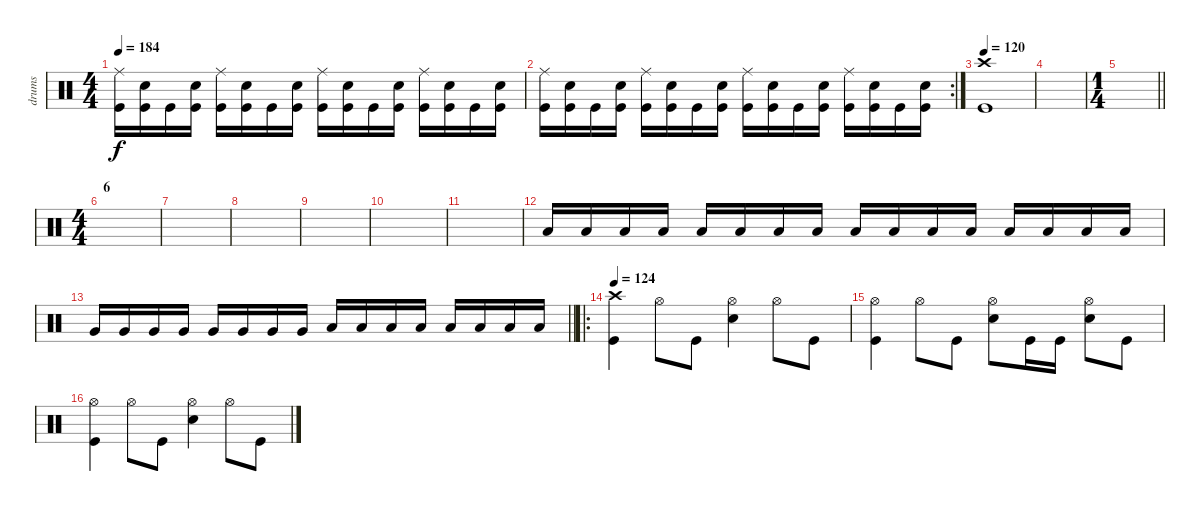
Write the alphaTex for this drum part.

\track ("drums" "drums") {instrument percussion}
\staff {score}
\articulation defaults
\ts (4 4)
\tempo 184
\clef neutral
\ks c
("Kick (hit)" "Ride (middle)").16{dy f} ("Kick (hit)" "Electric Snare (hit)").16 "Kick (hit)".16 ("Kick (hit)" "Electric Snare (hit)").16 ("Kick (hit)" "Ride (middle)").16 ("Kick (hit)" "Electric Snare (hit)").16 "Kick (hit)".16 ("Kick (hit)" "Electric Snare (hit)").16 ("Kick (hit)" "Ride (middle)").16 ("Kick (hit)" "Electric Snare (hit)").16 "Kick (hit)".16 ("Kick (hit)" "Electric Snare (hit)").16 ("Kick (hit)" "Ride (middle)").16 ("Kick (hit)" "Electric Snare (hit)").16 "Kick (hit)".16 ("Kick (hit)" "Electric Snare (hit)").16 |
\rc 2
("Kick (hit)" "Ride (middle)").16 ("Kick (hit)" "Electric Snare (hit)").16 "Kick (hit)".16 ("Kick (hit)" "Electric Snare (hit)").16 ("Kick (hit)" "Ride (middle)").16 ("Kick (hit)" "Electric Snare (hit)").16 "Kick (hit)".16 ("Kick (hit)" "Electric Snare (hit)").16 ("Kick (hit)" "Ride (middle)").16 ("Kick (hit)" "Electric Snare (hit)").16 "Kick (hit)".16 ("Kick (hit)" "Electric Snare (hit)").16 ("Kick (hit)" "Ride (middle)").16 ("Kick (hit)" "Electric Snare (hit)").16 "Kick (hit)".16 ("Kick (hit)" "Electric Snare (hit)").16 |
\tempo 120
("Kick (hit)" "Crash high (hit)").1 |
|
\ts (1 4)
\barLineRight lightlight
|
\ts (4 4)
\section ("" "6")
|
|
|
|
|
|
"Low Tom (hit)".16{volume 13} "Low Tom (hit)".16 "Low Tom (hit)".16 "Low Tom (hit)".16 "Low Tom (hit)".16 "Low Tom (hit)".16 "Low Tom (hit)".16 "Low Tom (hit)".16 "Low Tom (hit)".16 "Low Tom (hit)".16 "Low Tom (hit)".16 "Low Tom (hit)".16 "Low Tom (hit)".16 "Low Tom (hit)".16 "Low Tom (hit)".16 "Low Tom (hit)".16 |
\barLineRight lightlight "Very Low Tom (hit)".16 "Very Low Tom (hit)".16 "Very Low Tom (hit)".16 "Very Low Tom (hit)".16 "Very Low Tom (hit)".16 "Very Low Tom (hit)".16 "Very Low Tom (hit)".16 "Very Low Tom (hit)".16 "Low Floor Tom (hit)".16 "Low Floor Tom (hit)".16 "Low Floor Tom (hit)".16 "Low Floor Tom (hit)".16 "Low Floor Tom (hit)".16 "Low Floor Tom (hit)".16 "Low Floor Tom (hit)".16 "Low Floor Tom (hit)".16
|
\ro
\section ("" "")
\tempo 124
("Kick (hit)" "Crash high (hit)").4 "Hi-Hat (open)".8 "Kick (hit)".8 ("Electric Snare (hit)" "Hi-Hat (open)").4 "Hi-Hat (open)".8 "Kick (hit)".8 |
("Kick (hit)" "Hi-Hat (open)").4 "Hi-Hat (open)".8 "Kick (hit)".8 ("Electric Snare (hit)" "Hi-Hat (open)").8 "Kick (hit)".16 "Kick (hit)".16 ("Electric Snare (hit)" "Hi-Hat (open)").8 "Kick (hit)".8 |
("Kick (hit)" "Hi-Hat (open)").4 "Hi-Hat (open)".8 "Kick (hit)".8 ("Hi-Hat (open)" "Electric Snare (hit)").4 "Hi-Hat (open)".8 "Kick (hit)".8
